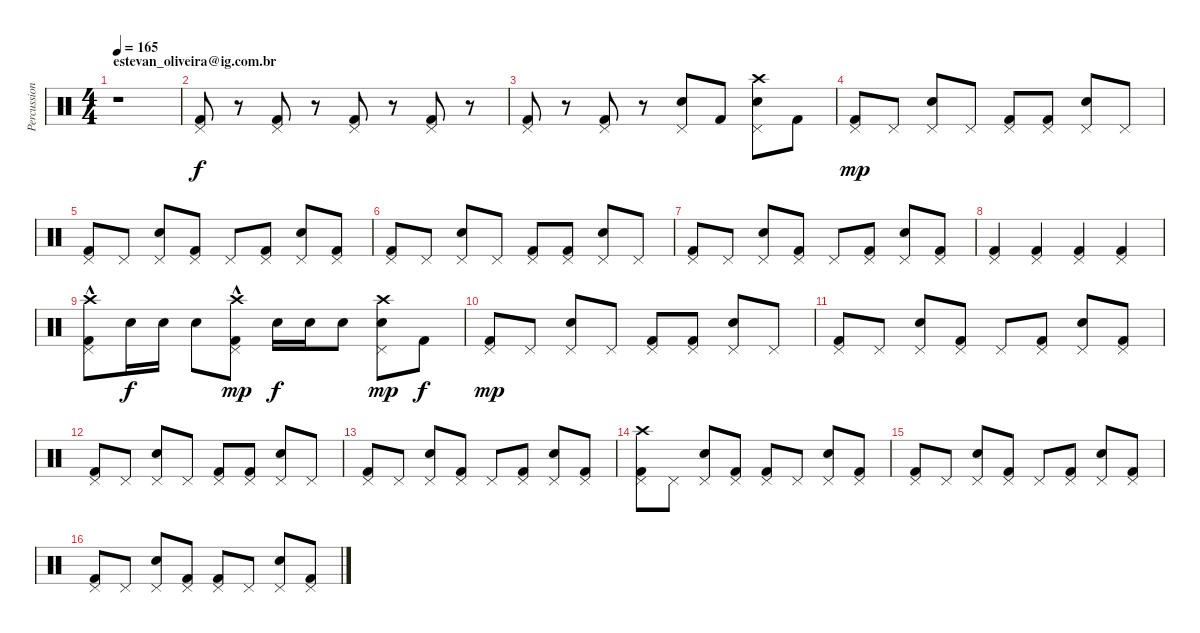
\track ("Percussion" "Percussion") {instrument percussion}
\staff {score}
\articulation defaults
\ts (4 4)
\section ("" "estevan_oliveira@ig.com.br")
\tempo 165
\clef neutral
\ks c
r.1{dy f} |
("Pedal Hi-Hat (hit)" "Kick (hit) 2").8 r.8 ("Pedal Hi-Hat (hit)" "Kick (hit) 2").8 r.8 ("Pedal Hi-Hat (hit)" "Kick (hit) 2").8 r.8 ("Pedal Hi-Hat (hit)" "Kick (hit) 2").8 r.8 |
("Pedal Hi-Hat (hit)" "Kick (hit) 2").8 r.8 ("Pedal Hi-Hat (hit)" "Kick (hit) 2").8 r.8 ("Snare (hit) 2" "Pedal Hi-Hat (hit)").8 "Kick (hit) 2".8 ("Crash high (hit)" "Snare (hit) 2" "Pedal Hi-Hat (hit)").8 "Kick (hit) 2".8 |
("Pedal Hi-Hat (hit)" "Kick (hit) 2").8{dy mp} "Pedal Hi-Hat (hit)".8 ("Pedal Hi-Hat (hit)" "Snare (hit) 2").8 "Pedal Hi-Hat (hit)".8 ("Pedal Hi-Hat (hit)" "Kick (hit) 2").8 ("Pedal Hi-Hat (hit)" "Kick (hit) 2").8 ("Pedal Hi-Hat (hit)" "Snare (hit) 2").8 "Pedal Hi-Hat (hit)".8 |
("Pedal Hi-Hat (hit)" "Kick (hit) 2").8 "Pedal Hi-Hat (hit)".8 ("Pedal Hi-Hat (hit)" "Snare (hit) 2").8 ("Pedal Hi-Hat (hit)" "Kick (hit) 2").8 "Pedal Hi-Hat (hit)".8 ("Pedal Hi-Hat (hit)" "Kick (hit) 2").8 ("Pedal Hi-Hat (hit)" "Snare (hit) 2").8 ("Pedal Hi-Hat (hit)" "Kick (hit) 2").8 |
("Pedal Hi-Hat (hit)" "Kick (hit) 2").8 "Pedal Hi-Hat (hit)".8 ("Pedal Hi-Hat (hit)" "Snare (hit) 2").8 "Pedal Hi-Hat (hit)".8 ("Pedal Hi-Hat (hit)" "Kick (hit) 2").8 ("Pedal Hi-Hat (hit)" "Kick (hit) 2").8 ("Pedal Hi-Hat (hit)" "Snare (hit) 2").8 "Pedal Hi-Hat (hit)".8 |
("Pedal Hi-Hat (hit)" "Kick (hit) 2").8 "Pedal Hi-Hat (hit)".8 ("Pedal Hi-Hat (hit)" "Snare (hit) 2").8 ("Pedal Hi-Hat (hit)" "Kick (hit) 2").8 "Pedal Hi-Hat (hit)".8 ("Pedal Hi-Hat (hit)" "Kick (hit) 2").8 ("Pedal Hi-Hat (hit)" "Snare (hit) 2").8 ("Pedal Hi-Hat (hit)" "Kick (hit) 2").8 |
("Pedal Hi-Hat (hit)" "Kick (hit) 2").4 ("Pedal Hi-Hat (hit)" "Kick (hit) 2").4 ("Pedal Hi-Hat (hit)" "Kick (hit) 2").4 ("Pedal Hi-Hat (hit)" "Kick (hit) 2").4 |
("Pedal Hi-Hat (hit)" "Kick (hit) 2" "Crash high (hit)"{hac}).8 "Snare (hit) 2".16{dy f} "Snare (hit) 2".16 "Snare (hit) 2".8 ("Pedal Hi-Hat (hit)" "Kick (hit) 2" "Crash high (hit)"{hac}).8{dy mp} "Snare (hit) 2".16{dy f} "Snare (hit) 2".16 "Snare (hit) 2".8 ("Pedal Hi-Hat (hit)" "Snare (hit) 2" "Crash high (hit)").8{dy mp} "Kick (hit) 2".8{dy f} |
("Pedal Hi-Hat (hit)" "Kick (hit) 2").8{dy mp} "Pedal Hi-Hat (hit)".8 ("Pedal Hi-Hat (hit)" "Snare (hit) 2").8 "Pedal Hi-Hat (hit)".8 ("Pedal Hi-Hat (hit)" "Kick (hit) 2").8 ("Pedal Hi-Hat (hit)" "Kick (hit) 2").8 ("Pedal Hi-Hat (hit)" "Snare (hit) 2").8 "Pedal Hi-Hat (hit)".8 |
("Pedal Hi-Hat (hit)" "Kick (hit) 2").8 "Pedal Hi-Hat (hit)".8 ("Pedal Hi-Hat (hit)" "Snare (hit) 2").8 ("Pedal Hi-Hat (hit)" "Kick (hit) 2").8 "Pedal Hi-Hat (hit)".8 ("Pedal Hi-Hat (hit)" "Kick (hit) 2").8 ("Pedal Hi-Hat (hit)" "Snare (hit) 2").8 ("Pedal Hi-Hat (hit)" "Kick (hit) 2").8 |
("Pedal Hi-Hat (hit)" "Kick (hit) 2").8 "Pedal Hi-Hat (hit)".8 ("Pedal Hi-Hat (hit)" "Snare (hit) 2").8 "Pedal Hi-Hat (hit)".8 ("Pedal Hi-Hat (hit)" "Kick (hit) 2").8 ("Pedal Hi-Hat (hit)" "Kick (hit) 2").8 ("Pedal Hi-Hat (hit)" "Snare (hit) 2").8 "Pedal Hi-Hat (hit)".8 |
("Pedal Hi-Hat (hit)" "Kick (hit) 2").8 "Pedal Hi-Hat (hit)".8 ("Pedal Hi-Hat (hit)" "Snare (hit) 2").8 ("Pedal Hi-Hat (hit)" "Kick (hit) 2").8 "Pedal Hi-Hat (hit)".8 ("Pedal Hi-Hat (hit)" "Kick (hit) 2").8 ("Pedal Hi-Hat (hit)" "Snare (hit) 2").8 ("Pedal Hi-Hat (hit)" "Kick (hit) 2").8 |
("Crash high (hit)" "Pedal Hi-Hat (hit)" "Kick (hit) 2").8 "Pedal Hi-Hat (hit)".8 ("Snare (hit) 2" "Pedal Hi-Hat (hit)").8 ("Kick (hit) 2" "Pedal Hi-Hat (hit)").8 ("Kick (hit) 2" "Pedal Hi-Hat (hit)").8 "Pedal Hi-Hat (hit)".8 ("Snare (hit) 2" "Pedal Hi-Hat (hit)").8 ("Kick (hit) 2" "Pedal Hi-Hat (hit)").8 |
("Kick (hit) 2" "Pedal Hi-Hat (hit)").8 "Pedal Hi-Hat (hit)".8 ("Pedal Hi-Hat (hit)" "Snare (hit) 2").8 ("Pedal Hi-Hat (hit)" "Kick (hit) 2").8 "Pedal Hi-Hat (hit)".8 ("Pedal Hi-Hat (hit)" "Kick (hit) 2").8 ("Pedal Hi-Hat (hit)" "Snare (hit) 2").8 ("Pedal Hi-Hat (hit)" "Kick (hit) 2").8 |
("Pedal Hi-Hat (hit)" "Kick (hit) 2").8 "Pedal Hi-Hat (hit)".8 ("Snare (hit) 2" "Pedal Hi-Hat (hit)").8 ("Kick (hit) 2" "Pedal Hi-Hat (hit)").8 ("Kick (hit) 2" "Pedal Hi-Hat (hit)").8 "Pedal Hi-Hat (hit)".8 ("Snare (hit) 2" "Pedal Hi-Hat (hit)").8 ("Kick (hit) 2" "Pedal Hi-Hat (hit)").8
